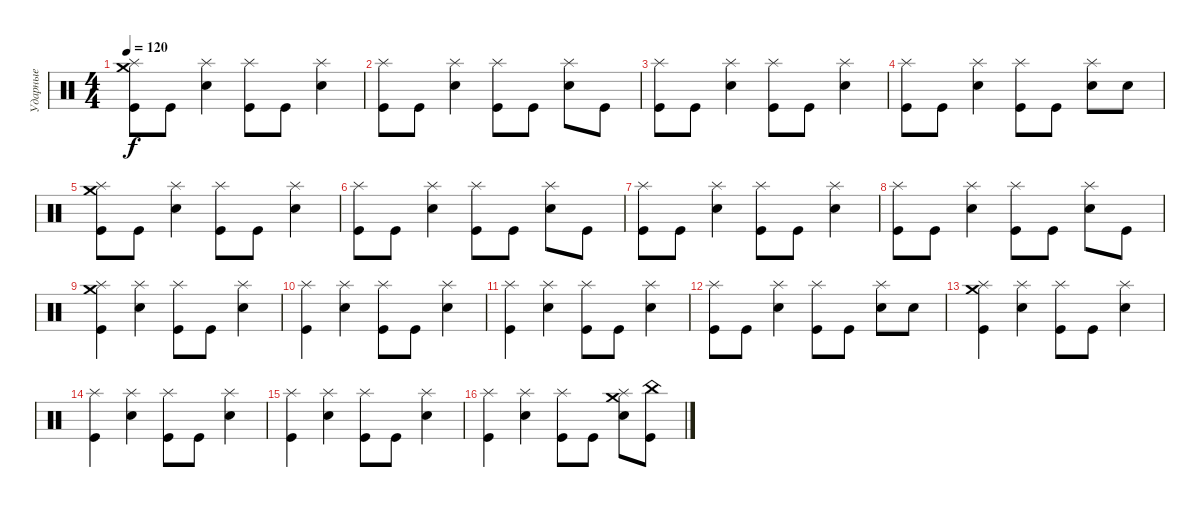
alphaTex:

\track ("Ударные" "Ударные") {instrument percussion}
\staff {score}
\articulation defaults
\ts (4 4)
\tempo 120
\clef neutral
\ks c
("Splash (hit)" "Crash medium (hit)" "Kick (hit)").8{dy f} "Kick (hit)".8 ("Splash (hit)" "Snare (hit) 2").4 ("Splash (hit)" "Kick (hit)").8 "Kick (hit)".8 ("Splash (hit)" "Snare (hit) 2").4 |
("Splash (hit)" "Kick (hit)").8 "Kick (hit)".8 ("Splash (hit)" "Snare (hit) 2").4 ("Splash (hit)" "Kick (hit)").8 "Kick (hit)".8 ("Splash (hit)" "Snare (hit) 2").8 "Kick (hit)".8 |
("Splash (hit)" "Kick (hit)").8 "Kick (hit)".8 ("Splash (hit)" "Snare (hit) 2").4 ("Splash (hit)" "Kick (hit)").8 "Kick (hit)".8 ("Splash (hit)" "Snare (hit) 2").4 |
("Splash (hit)" "Kick (hit)").8 "Kick (hit)".8 ("Splash (hit)" "Snare (hit) 2").4 ("Splash (hit)" "Kick (hit)").8 "Kick (hit)".8 ("Splash (hit)" "Snare (hit) 2").8 "Snare (hit) 2".8 |
("Splash (hit)" "Crash medium (hit)" "Kick (hit)").8 "Kick (hit)".8 ("Splash (hit)" "Snare (hit) 2").4 ("Splash (hit)" "Kick (hit)").8 "Kick (hit)".8 ("Splash (hit)" "Snare (hit) 2").4 |
("Splash (hit)" "Kick (hit)").8 "Kick (hit)".8 ("Splash (hit)" "Snare (hit) 2").4 ("Splash (hit)" "Kick (hit)").8 "Kick (hit)".8 ("Splash (hit)" "Snare (hit) 2").8 "Kick (hit)".8 |
("Splash (hit)" "Kick (hit)").8 "Kick (hit)".8 ("Splash (hit)" "Snare (hit) 2").4 ("Splash (hit)" "Kick (hit)").8 "Kick (hit)".8 ("Splash (hit)" "Snare (hit) 2").4 |
("Splash (hit)" "Kick (hit)").8 "Kick (hit)".8 ("Splash (hit)" "Snare (hit) 2").4 ("Splash (hit)" "Kick (hit)").8 "Kick (hit)".8 ("Splash (hit)" "Snare (hit) 2").8 "Kick (hit)".8 |
("Splash (hit)" "Crash medium (hit)" "Kick (hit)").4 ("Splash (hit)" "Snare (hit) 2").4 ("Splash (hit)" "Kick (hit)").8 "Kick (hit)".8 ("Splash (hit)" "Snare (hit) 2").4 |
("Splash (hit)" "Kick (hit)").4 ("Splash (hit)" "Snare (hit) 2").4 ("Splash (hit)" "Kick (hit)").8 "Kick (hit)".8 ("Splash (hit)" "Snare (hit) 2").4 |
("Splash (hit)" "Kick (hit)").4 ("Splash (hit)" "Snare (hit) 2").4 ("Splash (hit)" "Kick (hit)").8 "Kick (hit)".8 ("Splash (hit)" "Snare (hit) 2").4 |
("Splash (hit)" "Kick (hit)").8 "Kick (hit)".8 ("Splash (hit)" "Snare (hit) 2").4 ("Splash (hit)" "Kick (hit)").8 "Kick (hit)".8 ("Splash (hit)" "Snare (hit) 2").8 "Snare (hit) 2".8 |
("Splash (hit)" "Crash medium (hit)" "Kick (hit)").4 ("Splash (hit)" "Snare (hit) 2").4 ("Splash (hit)" "Kick (hit)").8 "Kick (hit)".8 ("Splash (hit)" "Snare (hit) 2").4 |
("Splash (hit)" "Kick (hit)").4 ("Splash (hit)" "Snare (hit) 2").4 ("Splash (hit)" "Kick (hit)").8 "Kick (hit)".8 ("Splash (hit)" "Snare (hit) 2").4 |
("Splash (hit)" "Kick (hit)").4 ("Splash (hit)" "Snare (hit) 2").4 ("Splash (hit)" "Kick (hit)").8 "Kick (hit)".8 ("Splash (hit)" "Snare (hit) 2").4 |
("Splash (hit)" "Kick (hit)").4 ("Splash (hit)" "Snare (hit) 2").4 ("Splash (hit)" "Kick (hit)").8 "Kick (hit)".8 ("Splash (hit)" "Crash medium (hit)" "Snare (hit) 2").8 ("China (hit)" "Kick (hit)").8
